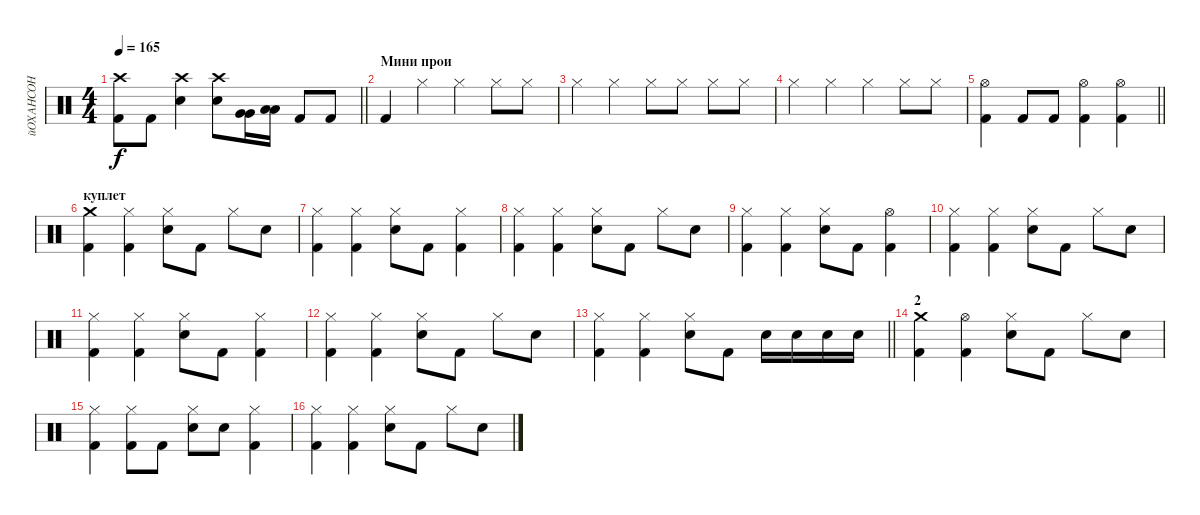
\track ("йОХАНСОН" "йОХАНСОН") {instrument percussion}
\staff {score}
\articulation defaults
\ts (4 4)
\tempo 165
\clef neutral
\barLineRight lightlight
\ks c
("Crash high (hit)" "Kick (hit) 2").8{dy f} "Kick (hit) 2".8 ("Crash high (hit)" "Snare (hit) 2").4 ("Crash high (hit)" "Snare (hit) 2").8 ("Very Low Tom (hit)" "Very Low Tom (hit)").16 ("Low Tom (hit)" "Low Tom (hit)").16 "Kick (hit) 2".8 "Kick (hit) 2".8 |
\section ("" "Мини прои")
"Kick (hit) 2".4 "Hi-Hat (closed)".4 "Hi-Hat (closed)".4 "Hi-Hat (closed)".8 "Hi-Hat (closed)".8 |
"Hi-Hat (closed)".4 "Hi-Hat (closed)".4 "Hi-Hat (closed)".8 "Hi-Hat (closed)".8 "Hi-Hat (closed)".8 "Hi-Hat (closed)".8 |
"Hi-Hat (closed)".4 "Hi-Hat (closed)".4 "Hi-Hat (closed)".4 "Hi-Hat (closed)".8 "Hi-Hat (closed)".8 |
\barLineRight lightlight
("Hi-Hat (open)" "Kick (hit) 2").4 "Kick (hit) 2".8 "Kick (hit) 2".8 ("Hi-Hat (open)" "Kick (hit) 2").4 ("Hi-Hat (open)" "Kick (hit) 2").4 |
\section ("" "куплет")
("Crash medium (hit)" "Kick (hit) 2").4 ("Hi-Hat (closed)" "Kick (hit) 2").4 ("Hi-Hat (closed)" "Snare (hit) 2").8 "Kick (hit) 2".8 "Hi-Hat (closed)".8 "Snare (hit) 2".8 |
("Hi-Hat (closed)" "Kick (hit) 2").4 ("Hi-Hat (closed)" "Kick (hit) 2").4 ("Hi-Hat (closed)" "Snare (hit) 2").8 "Kick (hit) 2".8 ("Hi-Hat (closed)" "Kick (hit) 2").4 |
("Hi-Hat (closed)" "Kick (hit) 2").4 ("Hi-Hat (closed)" "Kick (hit) 2").4 ("Hi-Hat (closed)" "Snare (hit) 2").8 "Kick (hit) 2".8 "Hi-Hat (closed)".8 "Snare (hit) 2".8 |
("Hi-Hat (closed)" "Kick (hit) 2").4 ("Hi-Hat (closed)" "Kick (hit) 2").4 ("Hi-Hat (closed)" "Snare (hit) 2").8 "Kick (hit) 2".8 ("Hi-Hat (open)" "Kick (hit) 2").4 |
("Hi-Hat (closed)" "Kick (hit) 2").4 ("Hi-Hat (closed)" "Kick (hit) 2").4 ("Hi-Hat (closed)" "Snare (hit) 2").8 "Kick (hit) 2".8 "Hi-Hat (closed)".8 "Snare (hit) 2".8 |
("Hi-Hat (closed)" "Kick (hit) 2").4 ("Hi-Hat (closed)" "Kick (hit) 2").4 ("Hi-Hat (closed)" "Snare (hit) 2").8 "Kick (hit) 2".8 ("Hi-Hat (closed)" "Kick (hit) 2").4 |
("Hi-Hat (closed)" "Kick (hit) 2").4 ("Hi-Hat (closed)" "Kick (hit) 2").4 ("Hi-Hat (closed)" "Snare (hit) 2").8 "Kick (hit) 2".8 "Hi-Hat (closed)".8 "Snare (hit) 2".8 |
\barLineRight lightlight
("Hi-Hat (closed)" "Kick (hit) 2").4 ("Hi-Hat (closed)" "Kick (hit) 2").4 ("Hi-Hat (closed)" "Snare (hit) 2").8 "Kick (hit) 2".8 "Snare (hit) 2".16 "Snare (hit) 2".16 "Snare (hit) 2".16 "Snare (hit) 2".16 |
\section ("" "2")
("Crash medium (hit)" "Kick (hit) 2").4 ("Hi-Hat (open)" "Kick (hit) 2").4 ("Hi-Hat (closed)" "Snare (hit) 2").8 "Kick (hit) 2".8 "Hi-Hat (closed)".8 "Snare (hit) 2".8 |
("Hi-Hat (closed)" "Kick (hit) 2").4 ("Hi-Hat (closed)" "Kick (hit) 2").8 "Kick (hit) 2".8 ("Hi-Hat (closed)" "Snare (hit) 2").8 "Snare (hit) 2".8 ("Hi-Hat (closed)" "Kick (hit) 2").4 |
("Hi-Hat (closed)" "Kick (hit) 2").4 ("Hi-Hat (closed)" "Kick (hit) 2").4 ("Hi-Hat (closed)" "Snare (hit) 2").8 "Kick (hit) 2".8 "Hi-Hat (closed)".8 "Snare (hit) 2".8
